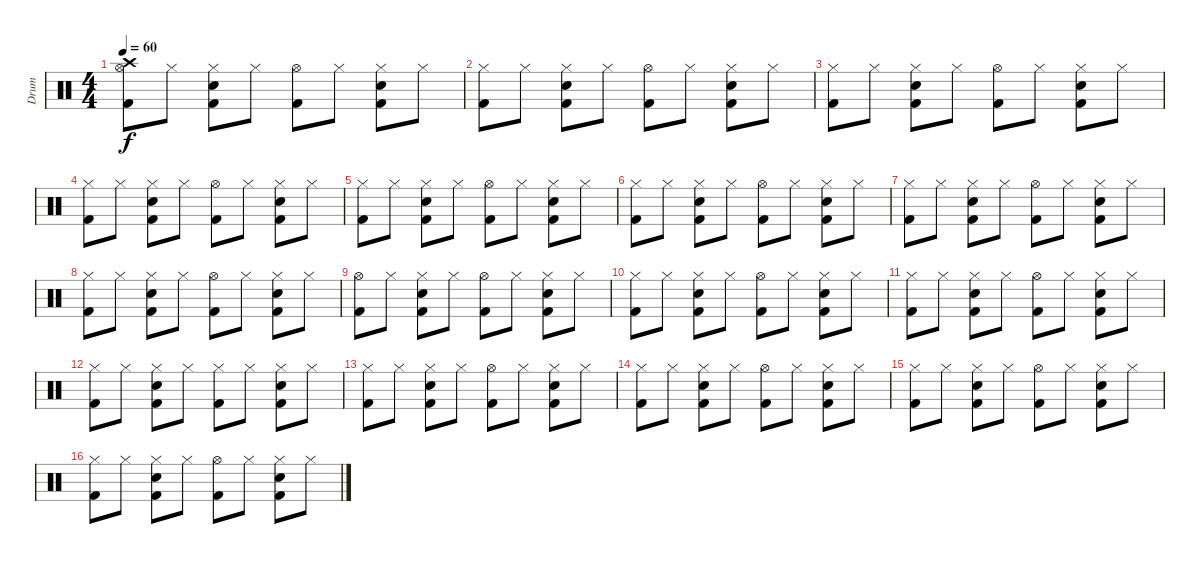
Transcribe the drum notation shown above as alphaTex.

\track ("Drum" "Drum") {instrument percussion}
\staff {score}
\articulation defaults
\ts (4 4)
\tempo 60
\clef neutral
\ks c
("Hi-Hat (open)" "Crash high (hit)" "Kick (hit) 2").8{dy f} "Hi-Hat (closed)".8 ("Snare (hit) 2" "Hi-Hat (closed)" "Kick (hit) 2").8 "Hi-Hat (closed)".8 ("Hi-Hat (open)" "Kick (hit) 2").8 "Hi-Hat (closed)".8 ("Snare (hit) 2" "Hi-Hat (closed)" "Kick (hit) 2").8 "Hi-Hat (closed)".8 |
("Hi-Hat (closed)" "Kick (hit) 2").8 "Hi-Hat (closed)".8 ("Hi-Hat (closed)" "Snare (hit) 2" "Kick (hit) 2").8 "Hi-Hat (closed)".8 ("Hi-Hat (open)" "Kick (hit) 2").8 "Hi-Hat (closed)".8 ("Snare (hit) 2" "Hi-Hat (closed)" "Kick (hit) 2").8 "Hi-Hat (closed)".8 |
("Hi-Hat (closed)" "Kick (hit) 2").8 "Hi-Hat (closed)".8 ("Hi-Hat (closed)" "Snare (hit) 2" "Kick (hit) 2").8 "Hi-Hat (closed)".8 ("Hi-Hat (open)" "Kick (hit) 2").8 "Hi-Hat (closed)".8 ("Snare (hit) 2" "Hi-Hat (closed)" "Kick (hit) 2").8 "Hi-Hat (closed)".8 |
("Hi-Hat (closed)" "Kick (hit) 2").8 "Hi-Hat (closed)".8 ("Hi-Hat (closed)" "Snare (hit) 2" "Kick (hit) 2").8 "Hi-Hat (closed)".8 ("Hi-Hat (open)" "Kick (hit) 2").8 "Hi-Hat (closed)".8 ("Snare (hit) 2" "Hi-Hat (closed)" "Kick (hit) 2").8 "Hi-Hat (closed)".8 |
("Hi-Hat (closed)" "Kick (hit) 2").8 "Hi-Hat (closed)".8 ("Hi-Hat (closed)" "Snare (hit) 2" "Kick (hit) 2").8 "Hi-Hat (closed)".8 ("Hi-Hat (open)" "Kick (hit) 2").8 "Hi-Hat (closed)".8 ("Snare (hit) 2" "Hi-Hat (closed)" "Kick (hit) 2").8 "Hi-Hat (closed)".8 |
("Hi-Hat (closed)" "Kick (hit) 2").8 "Hi-Hat (closed)".8 ("Hi-Hat (closed)" "Snare (hit) 2" "Kick (hit) 2").8 "Hi-Hat (closed)".8 ("Hi-Hat (open)" "Kick (hit) 2").8 "Hi-Hat (closed)".8 ("Snare (hit) 2" "Hi-Hat (closed)" "Kick (hit) 2").8 "Hi-Hat (closed)".8 |
("Hi-Hat (closed)" "Kick (hit) 2").8 "Hi-Hat (closed)".8 ("Hi-Hat (closed)" "Snare (hit) 2" "Kick (hit) 2").8 "Hi-Hat (closed)".8 ("Hi-Hat (open)" "Kick (hit) 2").8 "Hi-Hat (closed)".8 ("Snare (hit) 2" "Hi-Hat (closed)" "Kick (hit) 2").8 "Hi-Hat (closed)".8 |
("Hi-Hat (closed)" "Kick (hit) 2").8 "Hi-Hat (closed)".8 ("Hi-Hat (closed)" "Snare (hit) 2" "Kick (hit) 2").8 "Hi-Hat (closed)".8 ("Hi-Hat (open)" "Kick (hit) 2").8 "Hi-Hat (closed)".8 ("Snare (hit) 2" "Hi-Hat (closed)" "Kick (hit) 2").8 "Hi-Hat (closed)".8 |
("Hi-Hat (open)" "Kick (hit) 2").8 "Hi-Hat (closed)".8 ("Snare (hit) 2" "Hi-Hat (closed)" "Kick (hit) 2").8 "Hi-Hat (closed)".8 ("Hi-Hat (open)" "Kick (hit) 2").8 "Hi-Hat (closed)".8 ("Snare (hit) 2" "Hi-Hat (closed)" "Kick (hit) 2").8 "Hi-Hat (closed)".8 |
("Hi-Hat (closed)" "Kick (hit) 2").8 "Hi-Hat (closed)".8 ("Hi-Hat (closed)" "Snare (hit) 2" "Kick (hit) 2").8 "Hi-Hat (closed)".8 ("Hi-Hat (open)" "Kick (hit) 2").8 "Hi-Hat (closed)".8 ("Snare (hit) 2" "Hi-Hat (closed)" "Kick (hit) 2").8 "Hi-Hat (closed)".8 |
("Hi-Hat (closed)" "Kick (hit) 2").8 "Hi-Hat (closed)".8 ("Hi-Hat (closed)" "Snare (hit) 2" "Kick (hit) 2").8 "Hi-Hat (closed)".8 ("Hi-Hat (open)" "Kick (hit) 2").8 "Hi-Hat (closed)".8 ("Snare (hit) 2" "Hi-Hat (closed)" "Kick (hit) 2").8 "Hi-Hat (closed)".8 |
("Hi-Hat (closed)" "Kick (hit) 2").8 "Hi-Hat (closed)".8 ("Hi-Hat (closed)" "Snare (hit) 2" "Kick (hit) 2").8 "Hi-Hat (closed)".8 ("Hi-Hat (closed)" "Kick (hit) 2").8 "Hi-Hat (closed)".8 ("Snare (hit) 2" "Hi-Hat (closed)" "Kick (hit) 2").8 "Hi-Hat (closed)".8 |
("Hi-Hat (closed)" "Kick (hit) 2").8 "Hi-Hat (closed)".8 ("Hi-Hat (closed)" "Snare (hit) 2" "Kick (hit) 2").8 "Hi-Hat (closed)".8 ("Hi-Hat (open)" "Kick (hit) 2").8 "Hi-Hat (closed)".8 ("Snare (hit) 2" "Hi-Hat (closed)" "Kick (hit) 2").8 "Hi-Hat (closed)".8 |
("Hi-Hat (closed)" "Kick (hit) 2").8 "Hi-Hat (closed)".8 ("Hi-Hat (closed)" "Snare (hit) 2" "Kick (hit) 2").8 "Hi-Hat (closed)".8 ("Hi-Hat (open)" "Kick (hit) 2").8 "Hi-Hat (closed)".8 ("Snare (hit) 2" "Hi-Hat (closed)" "Kick (hit) 2").8 "Hi-Hat (closed)".8 |
("Hi-Hat (closed)" "Kick (hit) 2").8 "Hi-Hat (closed)".8 ("Hi-Hat (closed)" "Snare (hit) 2" "Kick (hit) 2").8 "Hi-Hat (closed)".8 ("Hi-Hat (open)" "Kick (hit) 2").8 "Hi-Hat (closed)".8 ("Snare (hit) 2" "Hi-Hat (closed)" "Kick (hit) 2").8 "Hi-Hat (closed)".8 |
("Hi-Hat (closed)" "Kick (hit) 2").8 "Hi-Hat (closed)".8 ("Hi-Hat (closed)" "Snare (hit) 2" "Kick (hit) 2").8 "Hi-Hat (closed)".8 ("Hi-Hat (open)" "Kick (hit) 2").8 "Hi-Hat (closed)".8 ("Snare (hit) 2" "Hi-Hat (closed)" "Kick (hit) 2").8 "Hi-Hat (closed)".8
